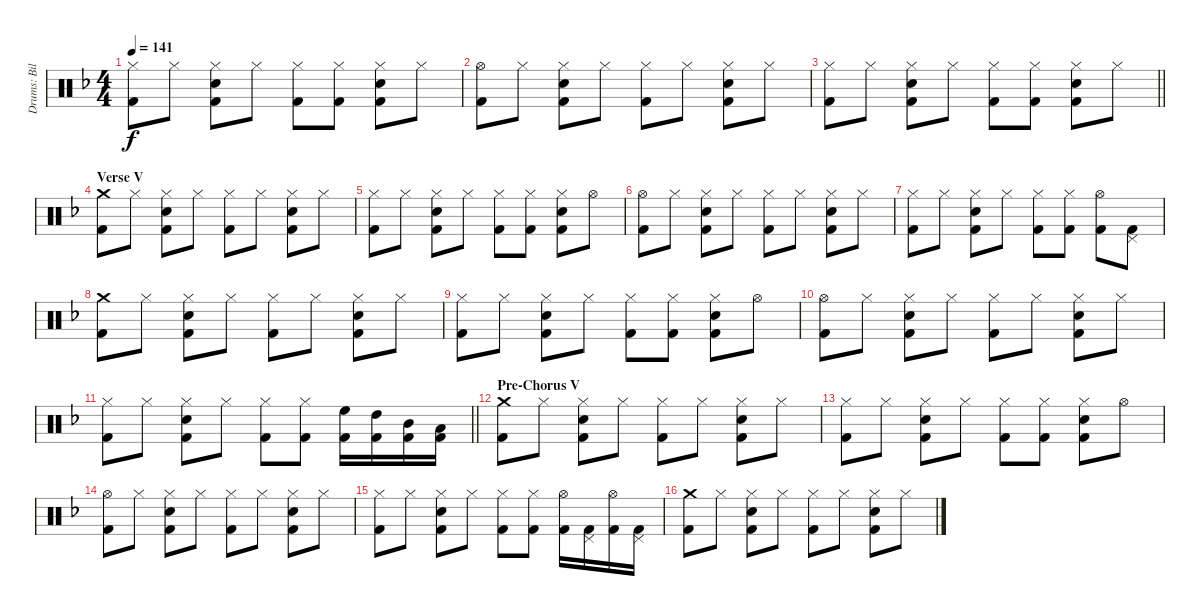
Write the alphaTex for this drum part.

\track ("Drums: Bill" "Drums: Bil") {instrument percussion}
\staff {score}
\articulation defaults
\ts (4 4)
\tempo 141
\clef neutral
\ks f
("Hi-Hat (closed)" "Kick (hit) 2").8{dy f} "Hi-Hat (closed)".8 ("Hi-Hat (closed)" "Snare (hit) 2" "Kick (hit) 2").8 "Hi-Hat (closed)".8 ("Hi-Hat (closed)" "Kick (hit) 2").8 ("Hi-Hat (closed)" "Kick (hit) 2").8 ("Hi-Hat (closed)" "Snare (hit) 2" "Kick (hit) 2").8 "Hi-Hat (closed)".8 |
("Hi-Hat (open)" "Kick (hit) 2").8 "Hi-Hat (closed)".8 ("Hi-Hat (closed)" "Snare (hit) 2" "Kick (hit) 2").8 "Hi-Hat (closed)".8 ("Hi-Hat (closed)" "Kick (hit) 2").8 "Hi-Hat (closed)".8 ("Hi-Hat (closed)" "Snare (hit) 2" "Kick (hit) 2").8 "Hi-Hat (closed)".8 |
\barLineRight lightlight
("Hi-Hat (closed)" "Kick (hit) 2").8 "Hi-Hat (closed)".8 ("Hi-Hat (closed)" "Snare (hit) 2" "Kick (hit) 2").8 "Hi-Hat (closed)".8 ("Hi-Hat (closed)" "Kick (hit) 2").8 ("Hi-Hat (closed)" "Kick (hit) 2").8 ("Hi-Hat (closed)" "Snare (hit) 2" "Kick (hit) 2").8 "Hi-Hat (closed)".8 |
\section ("" "Verse V")
("Crash medium (hit)" "Kick (hit) 2").8 "Hi-Hat (closed)".8 ("Hi-Hat (closed)" "Snare (hit) 2" "Kick (hit) 2").8 "Hi-Hat (closed)".8 ("Hi-Hat (closed)" "Kick (hit) 2").8 "Hi-Hat (closed)".8 ("Hi-Hat (closed)" "Snare (hit) 2" "Kick (hit) 2").8 "Hi-Hat (closed)".8 |
("Hi-Hat (closed)" "Kick (hit) 2").8 "Hi-Hat (closed)".8 ("Hi-Hat (closed)" "Snare (hit) 2" "Kick (hit) 2").8 "Hi-Hat (closed)".8 ("Hi-Hat (closed)" "Kick (hit) 2").8 ("Hi-Hat (closed)" "Kick (hit) 2").8 ("Hi-Hat (closed)" "Snare (hit) 2" "Kick (hit) 2").8 "Hi-Hat (open)".8 |
("Hi-Hat (open)" "Kick (hit) 2").8 "Hi-Hat (closed)".8 ("Hi-Hat (closed)" "Snare (hit) 2" "Kick (hit) 2").8 "Hi-Hat (closed)".8 ("Hi-Hat (closed)" "Kick (hit) 2").8 "Hi-Hat (closed)".8 ("Hi-Hat (closed)" "Snare (hit) 2" "Kick (hit) 2").8 "Hi-Hat (closed)".8 |
("Hi-Hat (closed)" "Kick (hit) 2").8 "Hi-Hat (closed)".8 ("Hi-Hat (closed)" "Snare (hit) 2" "Kick (hit) 2").8 "Hi-Hat (closed)".8 ("Hi-Hat (closed)" "Kick (hit) 2").8 ("Hi-Hat (closed)" "Kick (hit) 2").8 ("Hi-Hat (open)" "Kick (hit) 2").8 ("Pedal Hi-Hat (hit)" "Kick (hit) 2").8 |
("Crash medium (hit)" "Kick (hit) 2").8 "Hi-Hat (closed)".8 ("Hi-Hat (closed)" "Snare (hit) 2" "Kick (hit) 2").8 "Hi-Hat (closed)".8 ("Hi-Hat (closed)" "Kick (hit) 2").8 "Hi-Hat (closed)".8 ("Hi-Hat (closed)" "Snare (hit) 2" "Kick (hit) 2").8 "Hi-Hat (closed)".8 |
("Hi-Hat (closed)" "Kick (hit) 2").8 "Hi-Hat (closed)".8 ("Hi-Hat (closed)" "Snare (hit) 2" "Kick (hit) 2").8 "Hi-Hat (closed)".8 ("Hi-Hat (closed)" "Kick (hit) 2").8 ("Hi-Hat (closed)" "Kick (hit) 2").8 ("Hi-Hat (closed)" "Snare (hit) 2" "Kick (hit) 2").8 "Hi-Hat (open)".8 |
("Hi-Hat (open)" "Kick (hit) 2").8 "Hi-Hat (closed)".8 ("Hi-Hat (closed)" "Snare (hit) 2" "Kick (hit) 2").8 "Hi-Hat (closed)".8 ("Hi-Hat (closed)" "Kick (hit) 2").8 "Hi-Hat (closed)".8 ("Hi-Hat (closed)" "Snare (hit) 2" "Kick (hit) 2").8 "Hi-Hat (closed)".8 |
\barLineRight lightlight
("Hi-Hat (closed)" "Kick (hit) 2").8 "Hi-Hat (closed)".8 ("Hi-Hat (closed)" "Snare (hit) 2" "Kick (hit) 2").8 "Hi-Hat (closed)".8 ("Hi-Hat (closed)" "Kick (hit) 2").8 ("Hi-Hat (closed)" "Kick (hit) 2").8 ("High Floor Tom (hit)" "Kick (hit) 2").16 ("High Tom (hit)" "Kick (hit) 2").16 ("Mid Tom (hit)" "Kick (hit) 2").16 ("Low Tom (hit)" "Kick (hit) 2").16 |
\section ("" "Pre-Chorus V")
("Crash medium (hit)" "Kick (hit) 2").8 "Hi-Hat (closed)".8 ("Hi-Hat (closed)" "Snare (hit) 2" "Kick (hit) 2").8 "Hi-Hat (closed)".8 ("Hi-Hat (closed)" "Kick (hit) 2").8 "Hi-Hat (closed)".8 ("Hi-Hat (closed)" "Snare (hit) 2" "Kick (hit) 2").8 "Hi-Hat (closed)".8 |
("Hi-Hat (closed)" "Kick (hit) 2").8 "Hi-Hat (closed)".8 ("Hi-Hat (closed)" "Snare (hit) 2" "Kick (hit) 2").8 "Hi-Hat (closed)".8 ("Hi-Hat (closed)" "Kick (hit) 2").8 ("Hi-Hat (closed)" "Kick (hit) 2").8 ("Hi-Hat (closed)" "Snare (hit) 2" "Kick (hit) 2").8 "Hi-Hat (open)".8 |
("Hi-Hat (open)" "Kick (hit) 2").8 "Hi-Hat (closed)".8 ("Hi-Hat (closed)" "Snare (hit) 2" "Kick (hit) 2").8 "Hi-Hat (closed)".8 ("Hi-Hat (closed)" "Kick (hit) 2").8 "Hi-Hat (closed)".8 ("Hi-Hat (closed)" "Snare (hit) 2" "Kick (hit) 2").8 "Hi-Hat (closed)".8 |
("Hi-Hat (closed)" "Kick (hit) 2").8 "Hi-Hat (closed)".8 ("Hi-Hat (closed)" "Snare (hit) 2" "Kick (hit) 2").8 "Hi-Hat (closed)".8 ("Hi-Hat (closed)" "Kick (hit) 2").8 ("Hi-Hat (closed)" "Kick (hit) 2").8 ("Hi-Hat (open)" "Kick (hit) 2").16 ("Pedal Hi-Hat (hit)" "Kick (hit) 2").16 ("Hi-Hat (open)" "Kick (hit) 2").16 ("Pedal Hi-Hat (hit)" "Kick (hit) 2").16 |
("Crash medium (hit)" "Kick (hit) 2").8 "Hi-Hat (closed)".8 ("Hi-Hat (closed)" "Snare (hit) 2" "Kick (hit) 2").8 "Hi-Hat (closed)".8 ("Hi-Hat (closed)" "Kick (hit) 2").8 "Hi-Hat (closed)".8 ("Hi-Hat (closed)" "Snare (hit) 2" "Kick (hit) 2").8 "Hi-Hat (closed)".8
